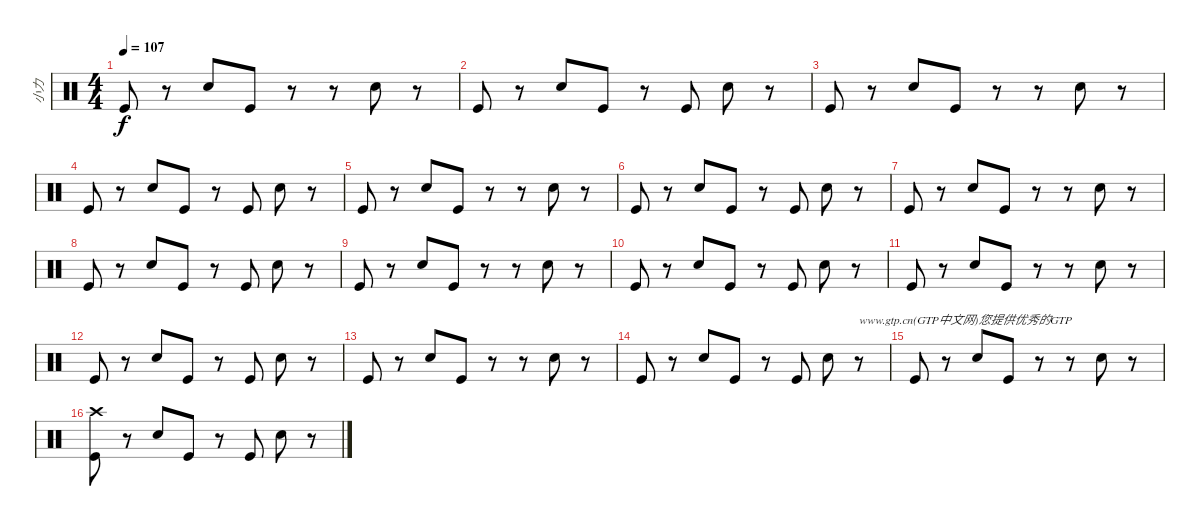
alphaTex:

\track ("小力" "小力") {instrument percussion}
\staff {score}
\articulation defaults
\ts (4 4)
\tempo 107
\clef neutral
\ks c "Kick (hit)".8{dy f}
r.8 "Electric Snare (hit)".8 "Kick (hit)".8 r.8 r.8 "Electric Snare (hit)".8 r.8 |
"Kick (hit)".8 r.8 "Electric Snare (hit)".8 "Kick (hit)".8 r.8 "Kick (hit)".8 "Electric Snare (hit)".8 r.8 |
"Kick (hit)".8 r.8 "Electric Snare (hit)".8 "Kick (hit)".8 r.8 r.8 "Electric Snare (hit)".8 r.8 |
"Kick (hit)".8 r.8 "Electric Snare (hit)".8 "Kick (hit)".8 r.8 "Kick (hit)".8 "Electric Snare (hit)".8 r.8 |
"Kick (hit)".8 r.8 "Electric Snare (hit)".8 "Kick (hit)".8 r.8 r.8 "Electric Snare (hit)".8 r.8 |
"Kick (hit)".8 r.8 "Electric Snare (hit)".8 "Kick (hit)".8 r.8 "Kick (hit)".8 "Electric Snare (hit)".8 r.8 |
"Kick (hit)".8 r.8 "Electric Snare (hit)".8 "Kick (hit)".8 r.8 r.8 "Electric Snare (hit)".8 r.8 |
"Kick (hit)".8 r.8 "Electric Snare (hit)".8 "Kick (hit)".8 r.8 "Kick (hit)".8 "Electric Snare (hit)".8 r.8 |
"Kick (hit)".8 r.8 "Electric Snare (hit)".8 "Kick (hit)".8 r.8 r.8 "Electric Snare (hit)".8 r.8 |
"Kick (hit)".8 r.8 "Electric Snare (hit)".8 "Kick (hit)".8 r.8 "Kick (hit)".8 "Electric Snare (hit)".8 r.8 |
"Kick (hit)".8 r.8 "Electric Snare (hit)".8 "Kick (hit)".8 r.8 r.8 "Electric Snare (hit)".8 r.8 |
"Kick (hit)".8 r.8 "Electric Snare (hit)".8 "Kick (hit)".8 r.8 "Kick (hit)".8 "Electric Snare (hit)".8 r.8 |
"Kick (hit)".8 r.8 "Electric Snare (hit)".8 "Kick (hit)".8 r.8 r.8 "Electric Snare (hit)".8 r.8 |
"Kick (hit)".8 r.8 "Electric Snare (hit)".8 "Kick (hit)".8 r.8 "Kick (hit)".8 "Electric Snare (hit)".8 r.8{txt "www.gtp.cn(GTP中文网)您提供优秀的GTP"} |
"Kick (hit)".8 r.8 "Electric Snare (hit)".8 "Kick (hit)".8 r.8 r.8 "Electric Snare (hit)".8 r.8 |
("Crash high (hit)" "Kick (hit)").8 r.8 "Electric Snare (hit)".8 "Kick (hit)".8 r.8 "Kick (hit)".8 "Electric Snare (hit)".8 r.8
